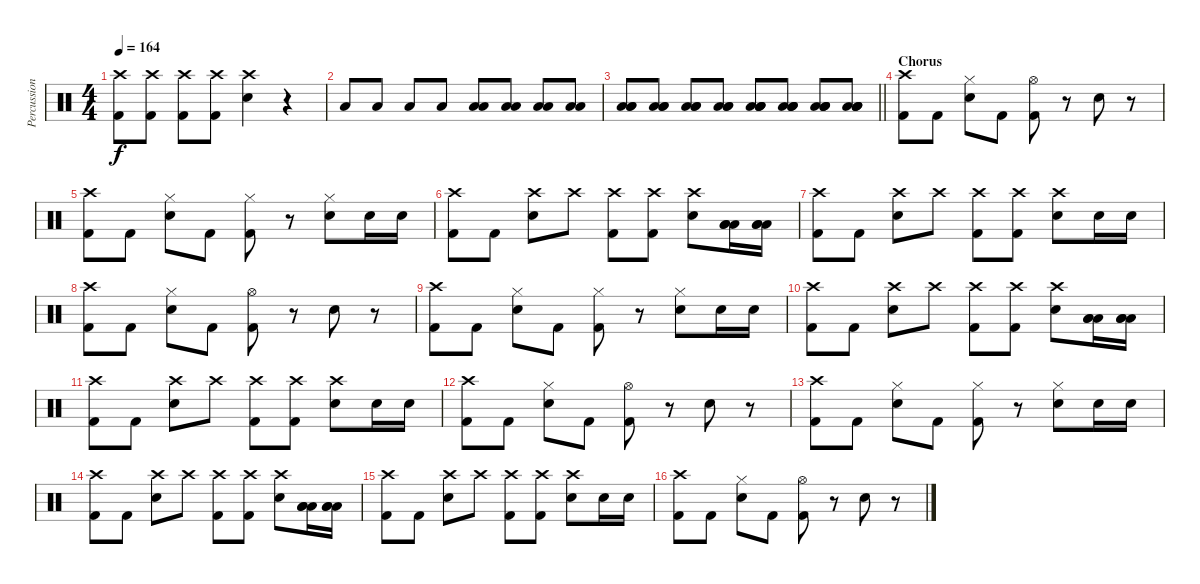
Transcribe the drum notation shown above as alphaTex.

\track ("Percussion" "Percussion") {instrument percussion}
\staff {score}
\articulation defaults
\ts (4 4)
\tempo 164
\clef neutral
\ks c
("Crash high (hit)" "Kick (hit) 2").8{dy f} ("Crash high (hit)" "Kick (hit) 2").8 ("Crash high (hit)" "Kick (hit) 2").8 ("Crash high (hit)" "Kick (hit) 2").8 ("Crash high (hit)" "Snare (hit) 2").4 r.4 |
"Low Tom (hit)".8 "Low Tom (hit)".8 "Low Tom (hit)".8 "Low Tom (hit)".8 ("Low Tom (hit)" "Low Tom (hit)").8 ("Low Tom (hit)" "Low Tom (hit)").8 ("Low Tom (hit)" "Low Tom (hit)").8 ("Low Tom (hit)" "Low Tom (hit)").8 |
\barLineRight lightlight
("Low Tom (hit)" "Low Tom (hit)" "Low Floor Tom (hit)").8 ("Low Tom (hit)" "Low Tom (hit)" "Low Floor Tom (hit)").8 ("Low Tom (hit)" "Low Tom (hit)" "Low Floor Tom (hit)").8 ("Low Tom (hit)" "Low Tom (hit)" "Low Floor Tom (hit)").8 ("Low Tom (hit)" "Low Tom (hit)" "Low Floor Tom (hit)" "Low Floor Tom (hit)").8 ("Low Tom (hit)" "Low Tom (hit)" "Low Floor Tom (hit)" "Low Floor Tom (hit)").8 ("Low Tom (hit)" "Low Tom (hit)" "Low Floor Tom (hit)" "Low Floor Tom (hit)").8 ("Low Tom (hit)" "Low Tom (hit)" "Low Floor Tom (hit)" "Low Floor Tom (hit)").8 |
\section ("" "Chorus")
("Kick (hit) 2" "Crash high (hit)").8 "Kick (hit) 2".8 ("Snare (hit) 2" "Hi-Hat (closed)").8 "Kick (hit) 2".8 ("Kick (hit) 2" "Hi-Hat (open)").8 r.8 "Snare (hit) 2".8 r.8 |
("Kick (hit) 2" "Crash high (hit)").8 "Kick (hit) 2".8 ("Snare (hit) 2" "Hi-Hat (closed)").8 "Kick (hit) 2".8 ("Kick (hit) 2" "Hi-Hat (closed)").8 r.8 ("Snare (hit) 2" "Hi-Hat (closed)").8 "Snare (hit) 2".16 "Snare (hit) 2".16 |
("Kick (hit) 2" "Crash high (hit)").8 "Kick (hit) 2".8 ("Crash high (hit)" "Snare (hit) 2").8 "Crash high (hit)".8 ("Kick (hit) 2" "Crash high (hit)").8 ("Kick (hit) 2" "Crash high (hit)").8 ("Crash high (hit)" "Snare (hit) 2").8 ("Low Floor Tom (hit)" "Low Floor Tom (hit)" "Low Floor Tom (hit)").16 ("Low Floor Tom (hit)" "Low Floor Tom (hit)" "Low Floor Tom (hit)").16 |
("Kick (hit) 2" "Crash high (hit)").8 "Kick (hit) 2".8 ("Crash high (hit)" "Snare (hit) 2").8 "Crash high (hit)".8 ("Kick (hit) 2" "Crash high (hit)").8 ("Kick (hit) 2" "Crash high (hit)").8 ("Crash high (hit)" "Snare (hit) 2").8 "Snare (hit) 2".16 "Snare (hit) 2".16 |
("Kick (hit) 2" "Crash high (hit)").8 "Kick (hit) 2".8 ("Snare (hit) 2" "Hi-Hat (closed)").8 "Kick (hit) 2".8 ("Kick (hit) 2" "Hi-Hat (open)").8 r.8 "Snare (hit) 2".8 r.8 |
("Kick (hit) 2" "Crash high (hit)").8 "Kick (hit) 2".8 ("Snare (hit) 2" "Hi-Hat (closed)").8 "Kick (hit) 2".8 ("Kick (hit) 2" "Hi-Hat (closed)").8 r.8 ("Snare (hit) 2" "Hi-Hat (closed)").8 "Snare (hit) 2".16 "Snare (hit) 2".16 |
("Kick (hit) 2" "Crash high (hit)").8 "Kick (hit) 2".8 ("Crash high (hit)" "Snare (hit) 2").8 "Crash high (hit)".8 ("Kick (hit) 2" "Crash high (hit)").8 ("Kick (hit) 2" "Crash high (hit)").8 ("Crash high (hit)" "Snare (hit) 2").8 ("Low Floor Tom (hit)" "Low Floor Tom (hit)" "Low Floor Tom (hit)").16 ("Low Floor Tom (hit)" "Low Floor Tom (hit)" "Low Floor Tom (hit)").16 |
("Kick (hit) 2" "Crash high (hit)").8 "Kick (hit) 2".8 ("Crash high (hit)" "Snare (hit) 2").8 "Crash high (hit)".8 ("Kick (hit) 2" "Crash high (hit)").8 ("Kick (hit) 2" "Crash high (hit)").8 ("Crash high (hit)" "Snare (hit) 2").8 "Snare (hit) 2".16 "Snare (hit) 2".16 |
("Kick (hit) 2" "Crash high (hit)").8 "Kick (hit) 2".8 ("Snare (hit) 2" "Hi-Hat (closed)").8 "Kick (hit) 2".8 ("Kick (hit) 2" "Hi-Hat (open)").8 r.8 "Snare (hit) 2".8 r.8 |
("Kick (hit) 2" "Crash high (hit)").8 "Kick (hit) 2".8 ("Snare (hit) 2" "Hi-Hat (closed)").8 "Kick (hit) 2".8 ("Kick (hit) 2" "Hi-Hat (closed)").8 r.8 ("Snare (hit) 2" "Hi-Hat (closed)").8 "Snare (hit) 2".16 "Snare (hit) 2".16 |
("Kick (hit) 2" "Crash high (hit)").8 "Kick (hit) 2".8 ("Crash high (hit)" "Snare (hit) 2").8 "Crash high (hit)".8 ("Kick (hit) 2" "Crash high (hit)").8 ("Kick (hit) 2" "Crash high (hit)").8 ("Crash high (hit)" "Snare (hit) 2").8 ("Low Floor Tom (hit)" "Low Floor Tom (hit)" "Low Floor Tom (hit)").16 ("Low Floor Tom (hit)" "Low Floor Tom (hit)" "Low Floor Tom (hit)").16 |
("Kick (hit) 2" "Crash high (hit)").8 "Kick (hit) 2".8 ("Crash high (hit)" "Snare (hit) 2").8 "Crash high (hit)".8 ("Kick (hit) 2" "Crash high (hit)").8 ("Kick (hit) 2" "Crash high (hit)").8 ("Crash high (hit)" "Snare (hit) 2").8 "Snare (hit) 2".16 "Snare (hit) 2".16 |
("Kick (hit) 2" "Crash high (hit)").8 "Kick (hit) 2".8 ("Snare (hit) 2" "Hi-Hat (closed)").8 "Kick (hit) 2".8 ("Kick (hit) 2" "Hi-Hat (open)").8 r.8 "Snare (hit) 2".8 r.8
